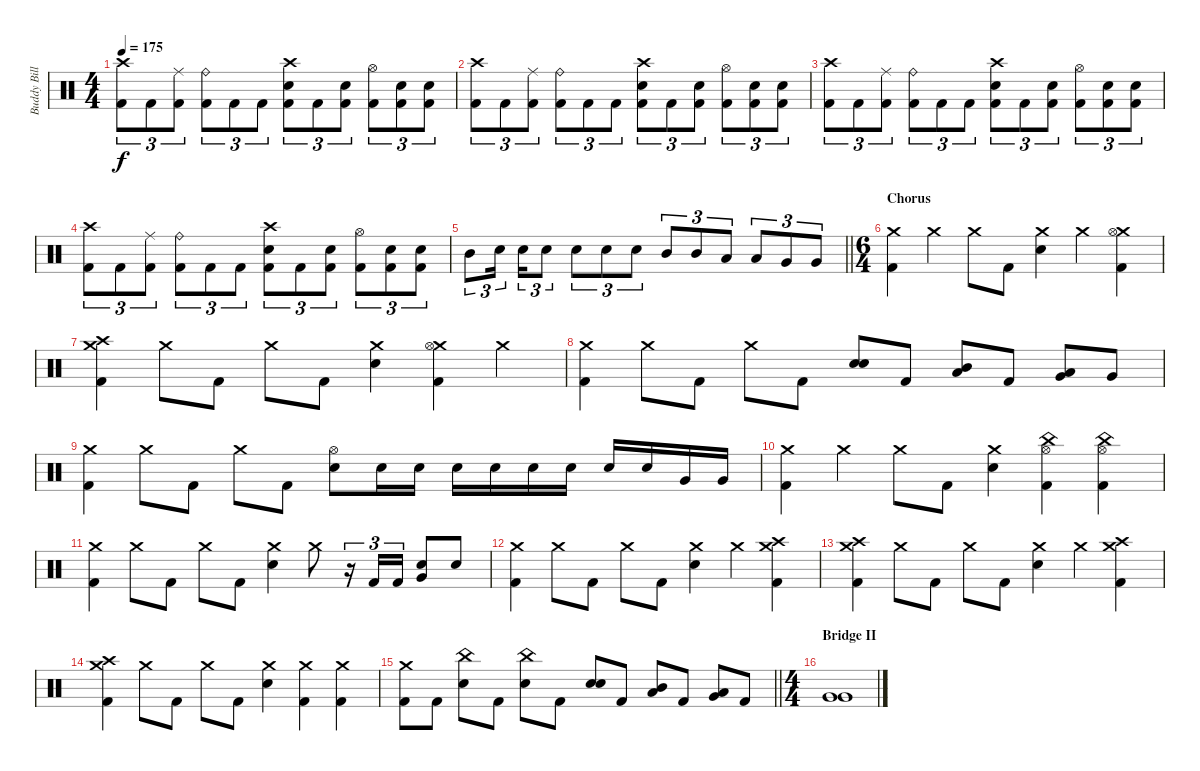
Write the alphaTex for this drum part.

\track ("Buddy Bill" "Buddy Bill") {instrument percussion}
\staff {score}
\articulation defaults
\ts (4 4)
\tempo 175
\clef neutral
\ks c
("Crash high (hit)" "Kick (hit) 2").8{tu (3 2) dy f} "Kick (hit) 2".8{tu (3 2)} ("Ride (middle)" "Kick (hit) 2").8{tu (3 2)} ("Ride (bell)" "Kick (hit) 2").8{tu (3 2)} "Kick (hit) 2".8{tu (3 2)} "Kick (hit) 2".8{tu (3 2)} ("Crash high (hit)" "Snare (hit) 2" "Kick (hit) 2").8{tu (3 2)} "Kick (hit) 2".8{tu (3 2)} ("Snare (hit) 2" "Kick (hit) 2").8{tu (3 2)} ("Hi-Hat (open)" "Kick (hit) 2").8{tu (3 2)} ("Snare (hit) 2" "Kick (hit) 2").8{tu (3 2)} ("Snare (hit) 2" "Kick (hit) 2").8{tu (3 2)} |
("Crash high (hit)" "Kick (hit) 2").8{tu (3 2)} "Kick (hit) 2".8{tu (3 2)} ("Ride (middle)" "Kick (hit) 2").8{tu (3 2)} ("Ride (bell)" "Kick (hit) 2").8{tu (3 2)} "Kick (hit) 2".8{tu (3 2)} "Kick (hit) 2".8{tu (3 2)} ("Crash high (hit)" "Snare (hit) 2" "Kick (hit) 2").8{tu (3 2)} "Kick (hit) 2".8{tu (3 2)} ("Snare (hit) 2" "Kick (hit) 2").8{tu (3 2)} ("Hi-Hat (open)" "Kick (hit) 2").8{tu (3 2)} ("Snare (hit) 2" "Kick (hit) 2").8{tu (3 2)} ("Snare (hit) 2" "Kick (hit) 2").8{tu (3 2)} |
("Crash high (hit)" "Kick (hit) 2").8{tu (3 2)} "Kick (hit) 2".8{tu (3 2)} ("Ride (middle)" "Kick (hit) 2").8{tu (3 2)} ("Ride (bell)" "Kick (hit) 2").8{tu (3 2)} "Kick (hit) 2".8{tu (3 2)} "Kick (hit) 2".8{tu (3 2)} ("Crash high (hit)" "Snare (hit) 2" "Kick (hit) 2").8{tu (3 2)} "Kick (hit) 2".8{tu (3 2)} ("Snare (hit) 2" "Kick (hit) 2").8{tu (3 2)} ("Hi-Hat (open)" "Kick (hit) 2").8{tu (3 2)} ("Snare (hit) 2" "Kick (hit) 2").8{tu (3 2)} ("Snare (hit) 2" "Kick (hit) 2").8{tu (3 2)} |
("Crash high (hit)" "Kick (hit) 2").8{tu (3 2)} "Kick (hit) 2".8{tu (3 2)} ("Ride (middle)" "Kick (hit) 2").8{tu (3 2)} ("Ride (bell)" "Kick (hit) 2").8{tu (3 2)} "Kick (hit) 2".8{tu (3 2)} "Kick (hit) 2".8{tu (3 2)} ("Crash high (hit)" "Snare (hit) 2" "Kick (hit) 2").8{tu (3 2)} "Kick (hit) 2".8{tu (3 2)} ("Snare (hit) 2" "Kick (hit) 2").8{tu (3 2)} ("Hi-Hat (open)" "Kick (hit) 2").8{tu (3 2)} ("Snare (hit) 2" "Kick (hit) 2").8{tu (3 2)} ("Snare (hit) 2" "Kick (hit) 2").8{tu (3 2)} |
\barLineRight lightlight "Mid Tom (hit)".8{tu (3 2)} "Snare (hit) 2".16{tu (3 2) beam splitsecondary} "Snare (hit) 2".16{tu (3 2)} "Snare (hit) 2".8{tu (3 2)} "Snare (hit) 2".8{tu (3 2)} "Snare (hit) 2".8{tu (3 2)} "Snare (hit) 2".8{tu (3 2)} "Mid Tom (hit)".8{tu (3 2)} "Mid Tom (hit)".8{tu (3 2)} "Low Tom (hit)".8{tu (3 2)} "Low Tom (hit)".8{tu (3 2)} "Very Low Tom (hit)".8{tu (3 2)} "Very Low Tom (hit)".8{tu (3 2)}
|
\ts (6 4)
\section ("" "Chorus")
("Crash medium (hit)" "Kick (hit) 2").4 "Crash medium (hit)".4 "Crash medium (hit)".8 "Kick (hit) 2".8 ("Crash medium (hit)" "Snare (hit) 2").4 "Crash medium (hit)".4 ("Crash medium (hit)" "Hi-Hat (open)" "Kick (hit) 2").4 |
("Crash medium (hit)" "Crash high (hit)" "Kick (hit) 2").4 "Crash medium (hit)".8 "Kick (hit) 2".8 "Crash medium (hit)".8 "Kick (hit) 2".8 ("Crash medium (hit)" "Snare (hit) 2").4 ("Crash medium (hit)" "Hi-Hat (open)" "Kick (hit) 2").4 "Crash medium (hit)".4 |
("Crash medium (hit)" "Kick (hit) 2").4 "Crash medium (hit)".8 "Kick (hit) 2".8 "Crash medium (hit)".8 "Kick (hit) 2".8 ("Snare (hit) 2" "Snare (hit) 2").8 "Kick (hit) 2".8 ("Mid Tom (hit)" "Low Tom (hit)").8 "Kick (hit) 2".8 ("Low Tom (hit)" "Very Low Tom (hit)").8 "Very Low Tom (hit)".8 |
("Crash medium (hit)" "Kick (hit) 2").4 "Crash medium (hit)".8 "Kick (hit) 2".8 "Crash medium (hit)".8 "Kick (hit) 2".8 ("Hi-Hat (open)" "Snare (hit) 2").8 "Snare (hit) 2".16 "Snare (hit) 2".16 "Snare (hit) 2".16 "Snare (hit) 2".16 "Snare (hit) 2".16 "Snare (hit) 2".16 "Snare (hit) 2".16 "Snare (hit) 2".16 "Very Low Tom (hit)".16 "Very Low Tom (hit)".16 |
("Crash medium (hit)" "Kick (hit) 2").4 "Crash medium (hit)".4 "Crash medium (hit)".8 "Kick (hit) 2".8 ("Crash medium (hit)" "Snare (hit) 2").4 ("China (hit)" "Hi-Hat (open)" "Kick (hit) 2").4 ("China (hit)" "Hi-Hat (open)" "Kick (hit) 2").4 |
("Crash medium (hit)" "Kick (hit) 2").4 "Crash medium (hit)".8 "Kick (hit) 2".8 "Crash medium (hit)".8 "Kick (hit) 2".8 ("Crash medium (hit)" "Snare (hit) 2").4 "Crash medium (hit)".8 r.16{tu (3 2)} "Kick (hit) 2".16{tu (3 2)} "Kick (hit) 2".16{tu (3 2)} ("Snare (hit) 2" "Very Low Tom (hit)").8 "Snare (hit) 2".8 |
("Crash medium (hit)" "Kick (hit) 2").4 "Crash medium (hit)".8 "Kick (hit) 2".8 "Crash medium (hit)".8 "Kick (hit) 2".8 ("Crash medium (hit)" "Snare (hit) 2").4 "Crash medium (hit)".4 ("Crash medium (hit)" "Crash high (hit)" "Kick (hit) 2").4 |
("Crash medium (hit)" "Crash high (hit)" "Kick (hit) 2").4 "Crash medium (hit)".8 "Kick (hit) 2".8 "Crash medium (hit)".8 "Kick (hit) 2".8 ("Crash medium (hit)" "Snare (hit) 2").4 "Crash medium (hit)".4 ("Crash medium (hit)" "Crash high (hit)" "Kick (hit) 2").4 |
("Crash medium (hit)" "Crash high (hit)" "Kick (hit) 2").4 "Crash medium (hit)".8 "Kick (hit) 2".8 "Crash medium (hit)".8 "Kick (hit) 2".8 ("Crash medium (hit)" "Snare (hit) 2").4 ("Crash medium (hit)" "Kick (hit) 2").4 ("Crash medium (hit)" "Kick (hit) 2").4 |
\barLineRight lightlight
("Crash medium (hit)" "Kick (hit) 2").8 "Kick (hit) 2".8 ("China (hit)" "Snare (hit) 2").8 "Kick (hit) 2".8 ("China (hit)" "Snare (hit) 2").8 "Kick (hit) 2".8 ("Snare (hit) 2" "Snare (hit) 2").8 "Kick (hit) 2".8 ("Mid Tom (hit)" "Low Tom (hit)").8 "Kick (hit) 2".8 ("Low Tom (hit)" "Very Low Tom (hit)").8 "Kick (hit) 2".8 |
\ts (4 4)
\section ("" "Bridge II")
("Very Low Tom (hit)" "Very Low Tom (hit)").1
